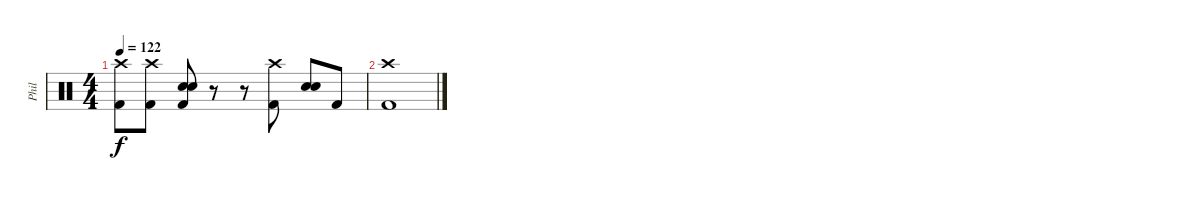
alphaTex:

\track ("Phil" "Phil") {instrument percussion}
\staff {score}
\articulation defaults
\ts (4 4)
\tempo 122
\clef neutral
\ks c
("Crash high (hit)" "Kick (hit) 2").8{dy f} ("Crash high (hit)" "Kick (hit) 2").8 ("Snare (hit) 2" "Electric Snare (hit)" "Kick (hit) 2").8 r.8 r.8 ("Crash high (hit)" "Kick (hit) 2").8 ("Snare (hit) 2" "Electric Snare (hit)").8 "Kick (hit) 2".8 |
("Crash high (hit)" "Kick (hit) 2").1
